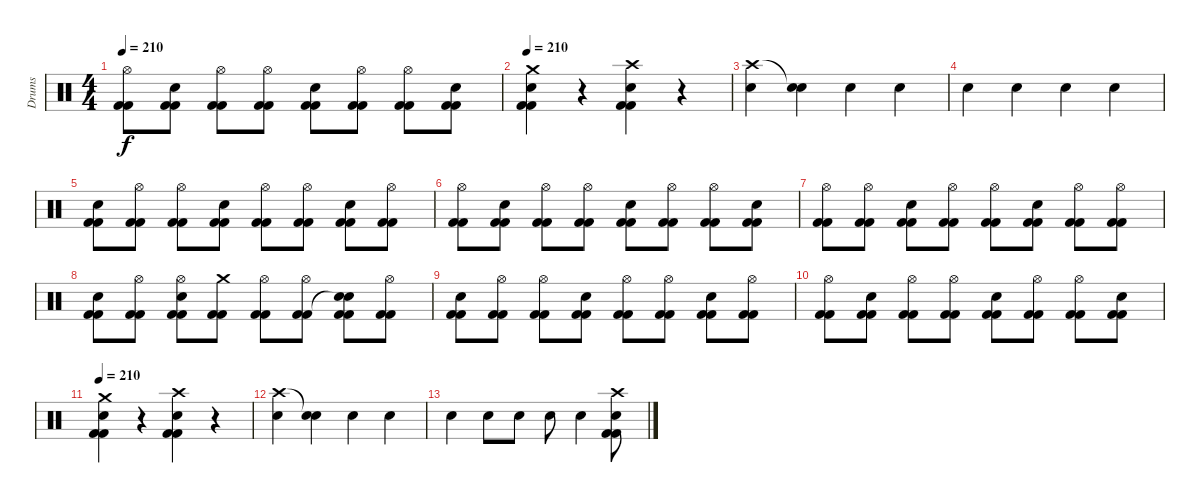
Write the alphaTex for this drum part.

\track ("Drums" "Drums") {instrument percussion}
\staff {score}
\articulation defaults
\ts (4 4)
\tempo 210
\clef neutral
\ks c
("Hi-Hat (open)" "Kick (hit) 2" "Kick (hit) 2").8{dy f} ("Snare (hit) 2" "Kick (hit) 2" "Kick (hit) 2").8 ("Hi-Hat (open)" "Kick (hit) 2" "Kick (hit) 2").8 ("Hi-Hat (open)" "Kick (hit) 2" "Kick (hit) 2").8 ("Snare (hit) 2" "Kick (hit) 2" "Kick (hit) 2").8 ("Hi-Hat (open)" "Kick (hit) 2" "Kick (hit) 2").8 ("Hi-Hat (open)" "Kick (hit) 2" "Kick (hit) 2").8 ("Snare (hit) 2" "Kick (hit) 2" "Kick (hit) 2").8 |
\tempo 210
("Crash medium (hit)" "Snare (hit) 2" "Kick (hit) 2" "Kick (hit) 2").4 r.4 ("Crash high (hit)" "Snare (hit) 2" "Kick (hit) 2" "Kick (hit) 2").4 r.4 |
("Crash high (hit)" "Snare (hit) 2").4 ("Snare (hit)"{t} "Snare (hit) 2").4 "Snare (hit) 2".4 "Snare (hit) 2".4 |
"Snare (hit) 2".4 "Snare (hit) 2".4 "Snare (hit) 2".4 "Snare (hit) 2".4 |
("Snare (hit) 2" "Kick (hit) 2" "Kick (hit) 2").8 ("Hi-Hat (open)" "Kick (hit) 2" "Kick (hit) 2").8 ("Hi-Hat (open)" "Kick (hit) 2" "Kick (hit) 2").8 ("Snare (hit) 2" "Kick (hit) 2" "Kick (hit) 2").8 ("Hi-Hat (open)" "Kick (hit) 2" "Kick (hit) 2").8 ("Hi-Hat (open)" "Kick (hit) 2" "Kick (hit) 2").8 ("Snare (hit) 2" "Kick (hit) 2" "Kick (hit) 2").8 ("Hi-Hat (open)" "Kick (hit) 2" "Kick (hit) 2").8 |
("Hi-Hat (open)" "Kick (hit) 2" "Kick (hit) 2").8 ("Snare (hit) 2" "Kick (hit) 2" "Kick (hit) 2").8 ("Hi-Hat (open)" "Kick (hit) 2" "Kick (hit) 2").8 ("Hi-Hat (open)" "Kick (hit) 2" "Kick (hit) 2").8 ("Snare (hit) 2" "Kick (hit) 2" "Kick (hit) 2").8 ("Hi-Hat (open)" "Kick (hit) 2" "Kick (hit) 2").8 ("Hi-Hat (open)" "Kick (hit) 2" "Kick (hit) 2").8 ("Snare (hit) 2" "Kick (hit) 2" "Kick (hit) 2").8 |
("Hi-Hat (open)" "Kick (hit) 2" "Kick (hit) 2").8 ("Hi-Hat (open)" "Kick (hit) 2" "Kick (hit) 2").8 ("Snare (hit) 2" "Kick (hit) 2" "Kick (hit) 2").8 ("Hi-Hat (open)" "Kick (hit) 2" "Kick (hit) 2").8 ("Hi-Hat (open)" "Kick (hit) 2" "Kick (hit) 2").8 ("Snare (hit) 2" "Kick (hit) 2" "Kick (hit) 2").8 ("Hi-Hat (open)" "Kick (hit) 2" "Kick (hit) 2").8 ("Hi-Hat (open)" "Kick (hit) 2" "Kick (hit) 2").8 |
("Snare (hit) 2" "Kick (hit) 2" "Kick (hit) 2").8 ("Hi-Hat (open)" "Kick (hit) 2" "Kick (hit) 2").8 ("Hi-Hat (open)" "Electric Snare (hit)" "Kick (hit) 2" "Kick (hit) 2").8 ("Crash medium (hit)" "Kick (hit) 2" "Kick (hit) 2").8 ("Hi-Hat (open)" "Kick (hit) 2" "Kick (hit) 2").8 ("Hi-Hat (open)" "Kick (hit) 2" "Kick (hit) 2").8 ("Snare (hit) 2" "Snare (hit)"{t} "Kick (hit) 2" "Kick (hit) 2").8 ("Hi-Hat (open)" "Kick (hit) 2" "Kick (hit) 2").8 |
("Snare (hit) 2" "Kick (hit) 2" "Kick (hit) 2").8 ("Hi-Hat (open)" "Kick (hit) 2" "Kick (hit) 2").8 ("Hi-Hat (open)" "Kick (hit) 2" "Kick (hit) 2").8 ("Snare (hit) 2" "Kick (hit) 2" "Kick (hit) 2").8 ("Hi-Hat (open)" "Kick (hit) 2" "Kick (hit) 2").8 ("Hi-Hat (open)" "Kick (hit) 2" "Kick (hit) 2").8 ("Snare (hit) 2" "Kick (hit) 2" "Kick (hit) 2").8 ("Hi-Hat (open)" "Kick (hit) 2" "Kick (hit) 2").8 |
("Hi-Hat (open)" "Kick (hit) 2" "Kick (hit) 2").8 ("Snare (hit) 2" "Kick (hit) 2" "Kick (hit) 2").8 ("Hi-Hat (open)" "Kick (hit) 2" "Kick (hit) 2").8 ("Hi-Hat (open)" "Kick (hit) 2" "Kick (hit) 2").8 ("Snare (hit) 2" "Kick (hit) 2" "Kick (hit) 2").8 ("Hi-Hat (open)" "Kick (hit) 2" "Kick (hit) 2").8 ("Hi-Hat (open)" "Kick (hit) 2" "Kick (hit) 2").8 ("Snare (hit) 2" "Kick (hit) 2" "Kick (hit) 2").8 |
\tempo 210
("Crash medium (hit)" "Snare (hit) 2" "Kick (hit) 2" "Kick (hit) 2").4 r.4 ("Crash high (hit)" "Snare (hit) 2" "Kick (hit) 2" "Kick (hit) 2").4 r.4 |
("Crash high (hit)" "Snare (hit) 2").4 ("Snare (hit)"{t} "Snare (hit) 2").4 "Snare (hit) 2".4 "Snare (hit) 2".4 |
"Snare (hit) 2".4 "Snare (hit) 2".8 "Snare (hit) 2".8 "Snare (hit) 2".8 "Snare (hit) 2".4 ("Crash high (hit)" "Snare (hit) 2" "Kick (hit) 2" "Kick (hit) 2").8
